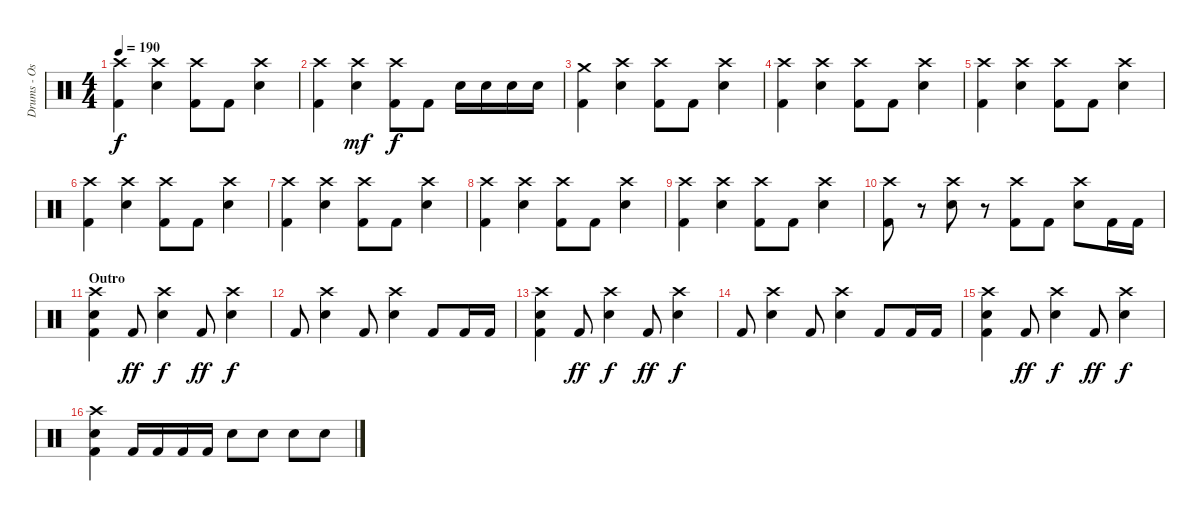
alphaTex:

\track ("Drums - Oskar Karlsson" "Drums - Os") {instrument percussion}
\staff {score}
\articulation defaults
\ts (4 4)
\tempo 190
\clef neutral
\ks c
("Crash high (hit)" "Kick (hit) 2").4{dy f} ("Crash high (hit)" "Electric Snare (hit)").4 ("Crash high (hit)" "Kick (hit) 2").8 "Kick (hit) 2".8 ("Crash high (hit)" "Electric Snare (hit)").4 |
("Crash high (hit)" "Kick (hit) 2").4 ("Crash high (hit)" "Electric Snare (hit)").4{dy mf} ("Crash high (hit)" "Kick (hit) 2").8{dy f} "Kick (hit) 2".8 "Electric Snare (hit)".16 "Electric Snare (hit)".16 "Electric Snare (hit)".16 "Electric Snare (hit)".16 |
("Crash medium (hit)" "Kick (hit) 2").4 ("Crash high (hit)" "Electric Snare (hit)").4 ("Crash high (hit)" "Kick (hit) 2").8 "Kick (hit) 2".8 ("Crash high (hit)" "Electric Snare (hit)").4 |
("Crash high (hit)" "Kick (hit) 2").4 ("Crash high (hit)" "Electric Snare (hit)").4 ("Crash high (hit)" "Kick (hit) 2").8 "Kick (hit) 2".8 ("Crash high (hit)" "Electric Snare (hit)").4 |
("Crash high (hit)" "Kick (hit) 2").4 ("Crash high (hit)" "Electric Snare (hit)").4 ("Crash high (hit)" "Kick (hit) 2").8 "Kick (hit) 2".8 ("Crash high (hit)" "Electric Snare (hit)").4 |
("Crash high (hit)" "Kick (hit) 2").4 ("Crash high (hit)" "Electric Snare (hit)").4 ("Crash high (hit)" "Kick (hit) 2").8 "Kick (hit) 2".8 ("Crash high (hit)" "Electric Snare (hit)").4 |
("Crash high (hit)" "Kick (hit) 2").4 ("Crash high (hit)" "Electric Snare (hit)").4 ("Crash high (hit)" "Kick (hit) 2").8 "Kick (hit) 2".8 ("Crash high (hit)" "Electric Snare (hit)").4 |
("Crash high (hit)" "Kick (hit) 2").4 ("Crash high (hit)" "Electric Snare (hit)").4 ("Crash high (hit)" "Kick (hit) 2").8 "Kick (hit) 2".8 ("Crash high (hit)" "Electric Snare (hit)").4 |
("Crash high (hit)" "Kick (hit) 2").4 ("Crash high (hit)" "Electric Snare (hit)").4 ("Crash high (hit)" "Kick (hit) 2").8 "Kick (hit) 2".8 ("Crash high (hit)" "Electric Snare (hit)").4 |
("Crash high (hit)" "Kick (hit) 2").8 r.8 ("Crash high (hit)" "Electric Snare (hit)").8 r.8 ("Crash high (hit)" "Kick (hit) 2").8 "Kick (hit) 2".8 ("Crash high (hit)" "Electric Snare (hit)").8 "Kick (hit) 2".16 "Kick (hit) 2".16 |
\section ("" "Outro")
("Crash high (hit)" "Electric Snare (hit)" "Kick (hit) 2").4 "Kick (hit) 2".8{dy ff} ("Crash high (hit)" "Electric Snare (hit)").4{dy f} "Kick (hit) 2".8{dy ff} ("Crash high (hit)" "Electric Snare (hit)").4{dy f} |
"Kick (hit) 2".8 ("Crash high (hit)" "Electric Snare (hit)").4 "Kick (hit) 2".8 ("Crash high (hit)" "Electric Snare (hit)").4 "Kick (hit) 2".8 "Kick (hit) 2".16 "Kick (hit) 2".16 |
("Crash high (hit)" "Electric Snare (hit)" "Kick (hit) 2").4 "Kick (hit) 2".8{dy ff} ("Crash high (hit)" "Electric Snare (hit)").4{dy f} "Kick (hit) 2".8{dy ff} ("Crash high (hit)" "Electric Snare (hit)").4{dy f} |
"Kick (hit) 2".8 ("Crash high (hit)" "Electric Snare (hit)").4 "Kick (hit) 2".8 ("Crash high (hit)" "Electric Snare (hit)").4 "Kick (hit) 2".8 "Kick (hit) 2".16 "Kick (hit) 2".16 |
("Crash high (hit)" "Electric Snare (hit)" "Kick (hit) 2").4 "Kick (hit) 2".8{dy ff} ("Crash high (hit)" "Electric Snare (hit)").4{dy f} "Kick (hit) 2".8{dy ff} ("Crash high (hit)" "Electric Snare (hit)").4{dy f} |
("Crash high (hit)" "Electric Snare (hit)" "Kick (hit) 2").4 "Kick (hit) 2".16 "Kick (hit) 2".16 "Kick (hit) 2".16 "Kick (hit) 2".16 "Electric Snare (hit)".8 "Electric Snare (hit)".8 "Electric Snare (hit)".8 "Electric Snare (hit)".8
